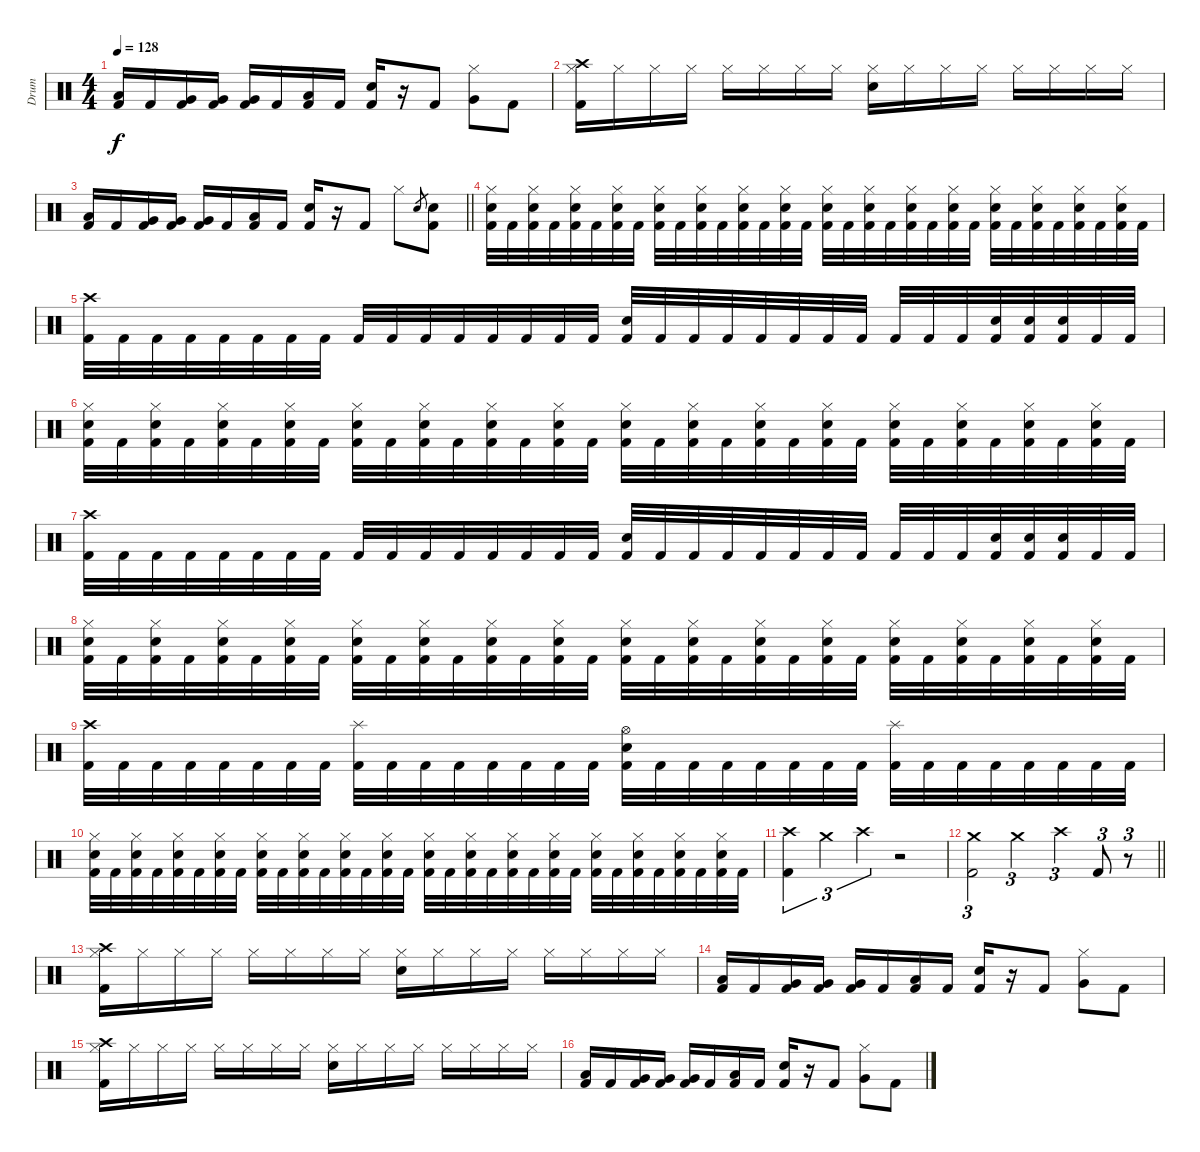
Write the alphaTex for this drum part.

\track ("Drum" "Drum") {instrument percussion}
\staff {score}
\articulation defaults
\ts (4 4)
\tempo 128
\clef neutral
\ks c
("Low Tom (hit)" "Kick (hit) 2").16{dy f} "Kick (hit) 2".16 ("Very Low Tom (hit)" "Kick (hit) 2").16 ("Very Low Tom (hit)" "Kick (hit) 2").16 ("Very Low Tom (hit)" "Kick (hit) 2").16 "Kick (hit) 2".16 ("Low Floor Tom (hit)" "Kick (hit) 2").16 "Kick (hit) 2".16 ("Electric Snare (hit)" "Kick (hit) 2").16 r.16 "Kick (hit) 2".8 ("Hi-Hat (closed)" "Very Low Tom (hit)").8 "Kick (hit) 2".8 |
("Crash high (hit)" "Hi-Hat (closed)" "Kick (hit) 2").16 "Hi-Hat (closed)".16 "Hi-Hat (closed)".16 "Hi-Hat (closed)".16 "Hi-Hat (closed)".16 "Hi-Hat (closed)".16 "Hi-Hat (closed)".16 "Hi-Hat (closed)".16 ("Hi-Hat (closed)" "Electric Snare (hit)").16 "Hi-Hat (closed)".16 "Hi-Hat (closed)".16 "Hi-Hat (closed)".16 "Hi-Hat (closed)".16 "Hi-Hat (closed)".16 "Hi-Hat (closed)".16 "Hi-Hat (closed)".16 |
\barLineRight lightlight
("Low Tom (hit)" "Kick (hit) 2").16 "Kick (hit) 2".16 ("Very Low Tom (hit)" "Kick (hit) 2").16 ("Very Low Tom (hit)" "Kick (hit) 2").16 ("Very Low Tom (hit)" "Kick (hit) 2").16 "Kick (hit) 2".16 ("Low Floor Tom (hit)" "Kick (hit) 2").16 "Kick (hit) 2".16 ("Electric Snare (hit)" "Kick (hit) 2").16 r.16 "Kick (hit) 2".8 "Hi-Hat (closed)".8 "Electric Snare (hit)".8{gr} ("Electric Snare (hit)" "Kick (hit) 2").8 |
\section ("" "")
("Hi-Hat (closed)" "Electric Snare (hit)" "Kick (hit) 2").32 "Kick (hit) 2".32 ("Hi-Hat (closed)" "Electric Snare (hit)" "Kick (hit) 2").32 "Kick (hit) 2".32 ("Hi-Hat (closed)" "Electric Snare (hit)" "Kick (hit) 2").32 "Kick (hit) 2".32 ("Hi-Hat (closed)" "Electric Snare (hit)" "Kick (hit) 2").32 "Kick (hit) 2".32 ("Hi-Hat (closed)" "Electric Snare (hit)" "Kick (hit) 2").32 "Kick (hit) 2".32 ("Hi-Hat (closed)" "Electric Snare (hit)" "Kick (hit) 2").32 "Kick (hit) 2".32 ("Hi-Hat (closed)" "Electric Snare (hit)" "Kick (hit) 2").32 "Kick (hit) 2".32 ("Hi-Hat (closed)" "Electric Snare (hit)" "Kick (hit) 2").32 "Kick (hit) 2".32 ("Hi-Hat (closed)" "Electric Snare (hit)" "Kick (hit) 2").32 "Kick (hit) 2".32 ("Hi-Hat (closed)" "Electric Snare (hit)" "Kick (hit) 2").32 "Kick (hit) 2".32 ("Hi-Hat (closed)" "Electric Snare (hit)" "Kick (hit) 2").32 "Kick (hit) 2".32 ("Hi-Hat (closed)" "Electric Snare (hit)" "Kick (hit) 2").32 "Kick (hit) 2".32 ("Hi-Hat (closed)" "Electric Snare (hit)" "Kick (hit) 2").32 "Kick (hit) 2".32 ("Hi-Hat (closed)" "Electric Snare (hit)" "Kick (hit) 2").32 "Kick (hit) 2".32 ("Hi-Hat (closed)" "Electric Snare (hit)" "Kick (hit) 2").32 "Kick (hit) 2".32 ("Hi-Hat (closed)" "Electric Snare (hit)" "Kick (hit) 2").32 "Kick (hit) 2".32 |
("Crash high (hit)" "Kick (hit) 2").32 "Kick (hit) 2".32 "Kick (hit) 2".32 "Kick (hit) 2".32 "Kick (hit) 2".32 "Kick (hit) 2".32 "Kick (hit) 2".32 "Kick (hit) 2".32 "Kick (hit) 2".32 "Kick (hit) 2".32 "Kick (hit) 2".32 "Kick (hit) 2".32 "Kick (hit) 2".32 "Kick (hit) 2".32 "Kick (hit) 2".32 "Kick (hit) 2".32 ("Electric Snare (hit)" "Kick (hit) 2").32 "Kick (hit) 2".32 "Kick (hit) 2".32 "Kick (hit) 2".32 "Kick (hit) 2".32 "Kick (hit) 2".32 "Kick (hit) 2".32 "Kick (hit) 2".32 "Kick (hit) 2".32 "Kick (hit) 2".32 "Kick (hit) 2".32 ("Electric Snare (hit)" "Kick (hit) 2").32 ("Electric Snare (hit)" "Kick (hit) 2").32 ("Electric Snare (hit)" "Kick (hit) 2").32 "Kick (hit) 2".32 "Kick (hit) 2".32 |
("Hi-Hat (closed)" "Electric Snare (hit)" "Kick (hit) 2").32 "Kick (hit) 2".32 ("Hi-Hat (closed)" "Electric Snare (hit)" "Kick (hit) 2").32 "Kick (hit) 2".32 ("Hi-Hat (closed)" "Electric Snare (hit)" "Kick (hit) 2").32 "Kick (hit) 2".32 ("Hi-Hat (closed)" "Electric Snare (hit)" "Kick (hit) 2").32 "Kick (hit) 2".32 ("Hi-Hat (closed)" "Electric Snare (hit)" "Kick (hit) 2").32 "Kick (hit) 2".32 ("Hi-Hat (closed)" "Electric Snare (hit)" "Kick (hit) 2").32 "Kick (hit) 2".32 ("Hi-Hat (closed)" "Electric Snare (hit)" "Kick (hit) 2").32 "Kick (hit) 2".32 ("Hi-Hat (closed)" "Electric Snare (hit)" "Kick (hit) 2").32 "Kick (hit) 2".32 ("Hi-Hat (closed)" "Electric Snare (hit)" "Kick (hit) 2").32 "Kick (hit) 2".32 ("Hi-Hat (closed)" "Electric Snare (hit)" "Kick (hit) 2").32 "Kick (hit) 2".32 ("Hi-Hat (closed)" "Electric Snare (hit)" "Kick (hit) 2").32 "Kick (hit) 2".32 ("Hi-Hat (closed)" "Electric Snare (hit)" "Kick (hit) 2").32 "Kick (hit) 2".32 ("Hi-Hat (closed)" "Electric Snare (hit)" "Kick (hit) 2").32 "Kick (hit) 2".32 ("Hi-Hat (closed)" "Electric Snare (hit)" "Kick (hit) 2").32 "Kick (hit) 2".32 ("Hi-Hat (closed)" "Electric Snare (hit)" "Kick (hit) 2").32 "Kick (hit) 2".32 ("Hi-Hat (closed)" "Electric Snare (hit)" "Kick (hit) 2").32 "Kick (hit) 2".32 |
("Crash high (hit)" "Kick (hit) 2").32 "Kick (hit) 2".32 "Kick (hit) 2".32 "Kick (hit) 2".32 "Kick (hit) 2".32 "Kick (hit) 2".32 "Kick (hit) 2".32 "Kick (hit) 2".32 "Kick (hit) 2".32 "Kick (hit) 2".32 "Kick (hit) 2".32 "Kick (hit) 2".32 "Kick (hit) 2".32 "Kick (hit) 2".32 "Kick (hit) 2".32 "Kick (hit) 2".32 ("Electric Snare (hit)" "Kick (hit) 2").32 "Kick (hit) 2".32 "Kick (hit) 2".32 "Kick (hit) 2".32 "Kick (hit) 2".32 "Kick (hit) 2".32 "Kick (hit) 2".32 "Kick (hit) 2".32 "Kick (hit) 2".32 "Kick (hit) 2".32 "Kick (hit) 2".32 ("Electric Snare (hit)" "Kick (hit) 2").32 ("Electric Snare (hit)" "Kick (hit) 2").32 ("Electric Snare (hit)" "Kick (hit) 2").32 "Kick (hit) 2".32 "Kick (hit) 2".32 |
("Hi-Hat (closed)" "Electric Snare (hit)" "Kick (hit) 2").32 "Kick (hit) 2".32 ("Hi-Hat (closed)" "Electric Snare (hit)" "Kick (hit) 2").32 "Kick (hit) 2".32 ("Hi-Hat (closed)" "Electric Snare (hit)" "Kick (hit) 2").32 "Kick (hit) 2".32 ("Hi-Hat (closed)" "Electric Snare (hit)" "Kick (hit) 2").32 "Kick (hit) 2".32 ("Hi-Hat (closed)" "Electric Snare (hit)" "Kick (hit) 2").32 "Kick (hit) 2".32 ("Hi-Hat (closed)" "Electric Snare (hit)" "Kick (hit) 2").32 "Kick (hit) 2".32 ("Hi-Hat (closed)" "Electric Snare (hit)" "Kick (hit) 2").32 "Kick (hit) 2".32 ("Hi-Hat (closed)" "Electric Snare (hit)" "Kick (hit) 2").32 "Kick (hit) 2".32 ("Hi-Hat (closed)" "Electric Snare (hit)" "Kick (hit) 2").32 "Kick (hit) 2".32 ("Hi-Hat (closed)" "Electric Snare (hit)" "Kick (hit) 2").32 "Kick (hit) 2".32 ("Hi-Hat (closed)" "Electric Snare (hit)" "Kick (hit) 2").32 "Kick (hit) 2".32 ("Hi-Hat (closed)" "Electric Snare (hit)" "Kick (hit) 2").32 "Kick (hit) 2".32 ("Hi-Hat (closed)" "Electric Snare (hit)" "Kick (hit) 2").32 "Kick (hit) 2".32 ("Hi-Hat (closed)" "Electric Snare (hit)" "Kick (hit) 2").32 "Kick (hit) 2".32 ("Hi-Hat (closed)" "Electric Snare (hit)" "Kick (hit) 2").32 "Kick (hit) 2".32 ("Hi-Hat (closed)" "Electric Snare (hit)" "Kick (hit) 2").32 "Kick (hit) 2".32 |
("Crash high (hit)" "Kick (hit) 2").32 "Kick (hit) 2".32 "Kick (hit) 2".32 "Kick (hit) 2".32 "Kick (hit) 2".32 "Kick (hit) 2".32 "Kick (hit) 2".32 "Kick (hit) 2".32 ("Splash (hit)" "Kick (hit) 2").32 "Kick (hit) 2".32 "Kick (hit) 2".32 "Kick (hit) 2".32 "Kick (hit) 2".32 "Kick (hit) 2".32 "Kick (hit) 2".32 "Kick (hit) 2".32 ("Hi-Hat (open)" "Electric Snare (hit)" "Kick (hit) 2").32 "Kick (hit) 2".32 "Kick (hit) 2".32 "Kick (hit) 2".32 "Kick (hit) 2".32 "Kick (hit) 2".32 "Kick (hit) 2".32 "Kick (hit) 2".32 ("Splash (hit)" "Kick (hit) 2").32 "Kick (hit) 2".32 "Kick (hit) 2".32 "Kick (hit) 2".32 "Kick (hit) 2".32 "Kick (hit) 2".32 "Kick (hit) 2".32 "Kick (hit) 2".32 |
("Hi-Hat (closed)" "Electric Snare (hit)" "Kick (hit) 2").32 "Kick (hit) 2".32 ("Hi-Hat (closed)" "Electric Snare (hit)" "Kick (hit) 2").32 "Kick (hit) 2".32 ("Hi-Hat (closed)" "Electric Snare (hit)" "Kick (hit) 2").32 "Kick (hit) 2".32 ("Hi-Hat (closed)" "Electric Snare (hit)" "Kick (hit) 2").32 "Kick (hit) 2".32 ("Hi-Hat (closed)" "Electric Snare (hit)" "Kick (hit) 2").32 "Kick (hit) 2".32 ("Hi-Hat (closed)" "Electric Snare (hit)" "Kick (hit) 2").32 "Kick (hit) 2".32 ("Hi-Hat (closed)" "Electric Snare (hit)" "Kick (hit) 2").32 "Kick (hit) 2".32 ("Hi-Hat (closed)" "Electric Snare (hit)" "Kick (hit) 2").32 "Kick (hit) 2".32 ("Hi-Hat (closed)" "Electric Snare (hit)" "Kick (hit) 2").32 "Kick (hit) 2".32 ("Hi-Hat (closed)" "Electric Snare (hit)" "Kick (hit) 2").32 "Kick (hit) 2".32 ("Hi-Hat (closed)" "Electric Snare (hit)" "Kick (hit) 2").32 "Kick (hit) 2".32 ("Hi-Hat (closed)" "Electric Snare (hit)" "Kick (hit) 2").32 "Kick (hit) 2".32 ("Hi-Hat (closed)" "Electric Snare (hit)" "Kick (hit) 2").32 "Kick (hit) 2".32 ("Hi-Hat (closed)" "Electric Snare (hit)" "Kick (hit) 2").32 "Kick (hit) 2".32 ("Hi-Hat (closed)" "Electric Snare (hit)" "Kick (hit) 2").32 "Kick (hit) 2".32 ("Hi-Hat (closed)" "Electric Snare (hit)" "Kick (hit) 2").32 "Kick (hit) 2".32 |
("Crash high (hit)" "Kick (hit) 2").4{tu (3 2)} "Crash medium (hit)".4{tu (3 2)} "Crash high (hit)".4{tu (3 2)} r.2 |
\barLineRight lightlight
("Crash medium (hit)" "Kick (hit) 2").2{tu (3 2)} "Crash medium (hit)".2{tu (3 2)} "Crash high (hit)".4{tu (3 2)} "Kick (hit) 2".8{tu (3 2)} r.8{tu (3 2)} |
\section ("" "")
("Crash high (hit)" "Hi-Hat (closed)" "Kick (hit) 2").16 "Hi-Hat (closed)".16 "Hi-Hat (closed)".16 "Hi-Hat (closed)".16 "Hi-Hat (closed)".16 "Hi-Hat (closed)".16 "Hi-Hat (closed)".16 "Hi-Hat (closed)".16 ("Hi-Hat (closed)" "Electric Snare (hit)").16 "Hi-Hat (closed)".16 "Hi-Hat (closed)".16 "Hi-Hat (closed)".16 "Hi-Hat (closed)".16 "Hi-Hat (closed)".16 "Hi-Hat (closed)".16 "Hi-Hat (closed)".16 |
("Low Tom (hit)" "Kick (hit) 2").16 "Kick (hit) 2".16 ("Very Low Tom (hit)" "Kick (hit) 2").16 ("Very Low Tom (hit)" "Kick (hit) 2").16 ("Very Low Tom (hit)" "Kick (hit) 2").16 "Kick (hit) 2".16 ("Low Floor Tom (hit)" "Kick (hit) 2").16 "Kick (hit) 2".16 ("Electric Snare (hit)" "Kick (hit) 2").16 r.16 "Kick (hit) 2".8 ("Hi-Hat (closed)" "Very Low Tom (hit)").8 "Kick (hit) 2".8 |
("Crash high (hit)" "Hi-Hat (closed)" "Kick (hit) 2").16 "Hi-Hat (closed)".16 "Hi-Hat (closed)".16 "Hi-Hat (closed)".16 "Hi-Hat (closed)".16 "Hi-Hat (closed)".16 "Hi-Hat (closed)".16 "Hi-Hat (closed)".16 ("Hi-Hat (closed)" "Electric Snare (hit)").16 "Hi-Hat (closed)".16 "Hi-Hat (closed)".16 "Hi-Hat (closed)".16 "Hi-Hat (closed)".16 "Hi-Hat (closed)".16 "Hi-Hat (closed)".16 "Hi-Hat (closed)".16 |
("Low Tom (hit)" "Kick (hit) 2").16 "Kick (hit) 2".16 ("Very Low Tom (hit)" "Kick (hit) 2").16 ("Very Low Tom (hit)" "Kick (hit) 2").16 ("Very Low Tom (hit)" "Kick (hit) 2").16 "Kick (hit) 2".16 ("Low Floor Tom (hit)" "Kick (hit) 2").16 "Kick (hit) 2".16 ("Electric Snare (hit)" "Kick (hit) 2").16 r.16 "Kick (hit) 2".8 ("Hi-Hat (closed)" "Very Low Tom (hit)").8 "Kick (hit) 2".8
